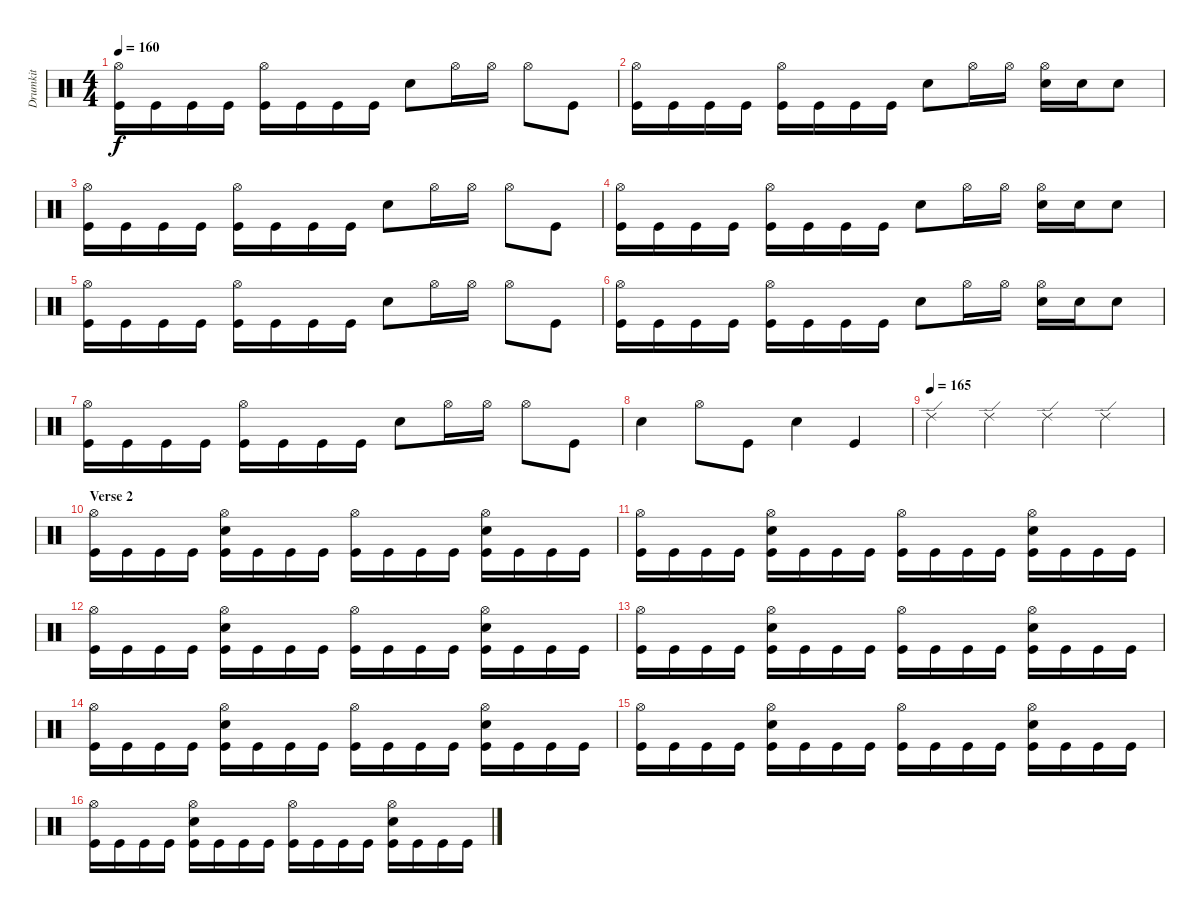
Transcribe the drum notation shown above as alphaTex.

\track ("Drumkit" "Drumkit") {instrument percussion}
\staff {score}
\articulation defaults
\ts (4 4)
\tempo 160
\clef neutral
\ks c
("Hi-Hat (open)" "Kick (hit)").16{dy f} "Kick (hit)".16 "Kick (hit)".16 "Kick (hit)".16 ("Hi-Hat (open)" "Kick (hit)").16 "Kick (hit)".16 "Kick (hit)".16 "Kick (hit)".16 "Snare (hit) 2".8 "Hi-Hat (open)".16 "Hi-Hat (open)".16 "Hi-Hat (open)".8 "Kick (hit)".8 |
("Hi-Hat (open)" "Kick (hit)").16 "Kick (hit)".16 "Kick (hit)".16 "Kick (hit)".16 ("Hi-Hat (open)" "Kick (hit)").16 "Kick (hit)".16 "Kick (hit)".16 "Kick (hit)".16 "Snare (hit) 2".8 "Hi-Hat (open)".16 "Hi-Hat (open)".16 ("Hi-Hat (open)" "Snare (hit) 2").16 "Snare (hit) 2".16 "Snare (hit) 2".8 |
("Hi-Hat (open)" "Kick (hit)").16 "Kick (hit)".16 "Kick (hit)".16 "Kick (hit)".16 ("Hi-Hat (open)" "Kick (hit)").16 "Kick (hit)".16 "Kick (hit)".16 "Kick (hit)".16 "Snare (hit) 2".8 "Hi-Hat (open)".16 "Hi-Hat (open)".16 "Hi-Hat (open)".8 "Kick (hit)".8 |
("Hi-Hat (open)" "Kick (hit)").16 "Kick (hit)".16 "Kick (hit)".16 "Kick (hit)".16 ("Hi-Hat (open)" "Kick (hit)").16 "Kick (hit)".16 "Kick (hit)".16 "Kick (hit)".16 "Snare (hit) 2".8 "Hi-Hat (open)".16 "Hi-Hat (open)".16 ("Hi-Hat (open)" "Snare (hit) 2").16 "Snare (hit) 2".16 "Snare (hit) 2".8 |
("Hi-Hat (open)" "Kick (hit)").16 "Kick (hit)".16 "Kick (hit)".16 "Kick (hit)".16 ("Hi-Hat (open)" "Kick (hit)").16 "Kick (hit)".16 "Kick (hit)".16 "Kick (hit)".16 "Snare (hit) 2".8 "Hi-Hat (open)".16 "Hi-Hat (open)".16 "Hi-Hat (open)".8 "Kick (hit)".8 |
("Hi-Hat (open)" "Kick (hit)").16 "Kick (hit)".16 "Kick (hit)".16 "Kick (hit)".16 ("Hi-Hat (open)" "Kick (hit)").16 "Kick (hit)".16 "Kick (hit)".16 "Kick (hit)".16 "Snare (hit) 2".8 "Hi-Hat (open)".16 "Hi-Hat (open)".16 ("Hi-Hat (open)" "Snare (hit) 2").16 "Snare (hit) 2".16 "Snare (hit) 2".8 |
("Hi-Hat (open)" "Kick (hit)").16 "Kick (hit)".16 "Kick (hit)".16 "Kick (hit)".16 ("Hi-Hat (open)" "Kick (hit)").16 "Kick (hit)".16 "Kick (hit)".16 "Kick (hit)".16 "Snare (hit) 2".8 "Hi-Hat (open)".16 "Hi-Hat (open)".16 "Hi-Hat (open)".8 "Kick (hit)".8 |
"Snare (hit) 2".4 "Hi-Hat (open)".8 "Kick (hit)".8 "Snare (hit) 2".4 "Kick (hit)".4 |
\tempo (165)
"Ride (edge) 2".4 "Ride (edge) 2".4 "Ride (edge) 2".4 "Ride (edge) 2".4 |
\section ("" "Verse 2")
("Hi-Hat (open)" "Kick (hit)").16 "Kick (hit)".16 "Kick (hit)".16 "Kick (hit)".16 ("Hi-Hat (open)" "Snare (hit) 2" "Kick (hit)").16 "Kick (hit)".16 "Kick (hit)".16 "Kick (hit)".16 ("Hi-Hat (open)" "Kick (hit)").16 "Kick (hit)".16 "Kick (hit)".16 "Kick (hit)".16 ("Hi-Hat (open)" "Snare (hit) 2" "Kick (hit)").16 "Kick (hit)".16 "Kick (hit)".16 "Kick (hit)".16 |
("Hi-Hat (open)" "Kick (hit)").16 "Kick (hit)".16 "Kick (hit)".16 "Kick (hit)".16 ("Hi-Hat (open)" "Snare (hit) 2" "Kick (hit)").16 "Kick (hit)".16 "Kick (hit)".16 "Kick (hit)".16 ("Hi-Hat (open)" "Kick (hit)").16 "Kick (hit)".16 "Kick (hit)".16 "Kick (hit)".16 ("Hi-Hat (open)" "Snare (hit) 2" "Kick (hit)").16 "Kick (hit)".16 "Kick (hit)".16 "Kick (hit)".16 |
("Hi-Hat (open)" "Kick (hit)").16 "Kick (hit)".16 "Kick (hit)".16 "Kick (hit)".16 ("Hi-Hat (open)" "Snare (hit) 2" "Kick (hit)").16 "Kick (hit)".16 "Kick (hit)".16 "Kick (hit)".16 ("Hi-Hat (open)" "Kick (hit)").16 "Kick (hit)".16 "Kick (hit)".16 "Kick (hit)".16 ("Hi-Hat (open)" "Snare (hit) 2" "Kick (hit)").16 "Kick (hit)".16 "Kick (hit)".16 "Kick (hit)".16 |
("Hi-Hat (open)" "Kick (hit)").16 "Kick (hit)".16 "Kick (hit)".16 "Kick (hit)".16 ("Hi-Hat (open)" "Snare (hit) 2" "Kick (hit)").16 "Kick (hit)".16 "Kick (hit)".16 "Kick (hit)".16 ("Hi-Hat (open)" "Kick (hit)").16 "Kick (hit)".16 "Kick (hit)".16 "Kick (hit)".16 ("Hi-Hat (open)" "Snare (hit) 2" "Kick (hit)").16 "Kick (hit)".16 "Kick (hit)".16 "Kick (hit)".16 |
("Hi-Hat (open)" "Kick (hit)").16 "Kick (hit)".16 "Kick (hit)".16 "Kick (hit)".16 ("Hi-Hat (open)" "Snare (hit) 2" "Kick (hit)").16 "Kick (hit)".16 "Kick (hit)".16 "Kick (hit)".16 ("Hi-Hat (open)" "Kick (hit)").16 "Kick (hit)".16 "Kick (hit)".16 "Kick (hit)".16 ("Hi-Hat (open)" "Snare (hit) 2" "Kick (hit)").16 "Kick (hit)".16 "Kick (hit)".16 "Kick (hit)".16 |
("Hi-Hat (open)" "Kick (hit)").16 "Kick (hit)".16 "Kick (hit)".16 "Kick (hit)".16 ("Hi-Hat (open)" "Snare (hit) 2" "Kick (hit)").16 "Kick (hit)".16 "Kick (hit)".16 "Kick (hit)".16 ("Hi-Hat (open)" "Kick (hit)").16 "Kick (hit)".16 "Kick (hit)".16 "Kick (hit)".16 ("Hi-Hat (open)" "Snare (hit) 2" "Kick (hit)").16 "Kick (hit)".16 "Kick (hit)".16 "Kick (hit)".16 |
("Hi-Hat (open)" "Kick (hit)").16 "Kick (hit)".16 "Kick (hit)".16 "Kick (hit)".16 ("Hi-Hat (open)" "Snare (hit) 2" "Kick (hit)").16 "Kick (hit)".16 "Kick (hit)".16 "Kick (hit)".16 ("Hi-Hat (open)" "Kick (hit)").16 "Kick (hit)".16 "Kick (hit)".16 "Kick (hit)".16 ("Hi-Hat (open)" "Snare (hit) 2" "Kick (hit)").16 "Kick (hit)".16 "Kick (hit)".16 "Kick (hit)".16
